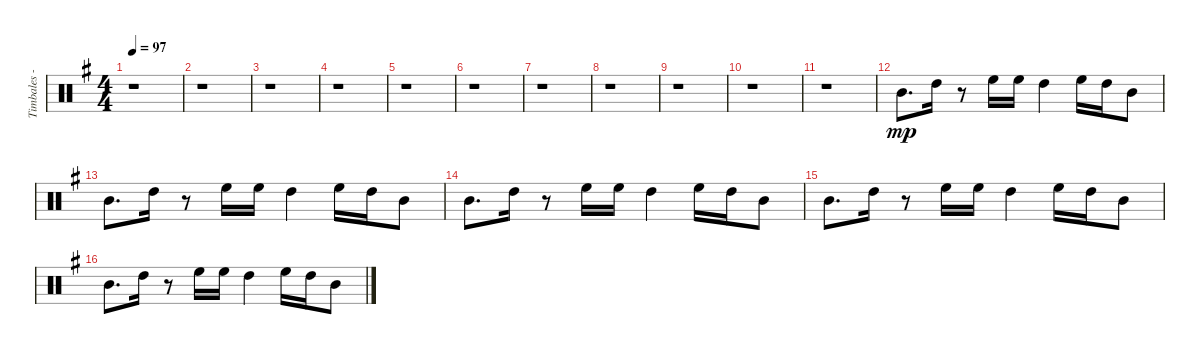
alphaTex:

\track ("Timbales - Alex Acuna" "Timbales -") {instrument percussion}
\staff {score}
\articulation defaults
\ts (4 4)
\tempo 97
\clef neutral
\ks g
r.1{dy mp} |
r.1 |
r.1 |
r.1 |
r.1 |
r.1 |
r.1 |
r.1 |
r.1 |
r.1 |
r.1 |
"Mid Tom (hit)".8{d} "High Tom (hit)".16 r.8 "High Floor Tom (hit)".16 "High Floor Tom (hit)".16 "High Tom (hit)".4 "High Floor Tom (hit)".16 "High Tom (hit)".16 "Mid Tom (hit)".8 |
"Mid Tom (hit)".8{d} "High Tom (hit)".16 r.8 "High Floor Tom (hit)".16 "High Floor Tom (hit)".16 "High Tom (hit)".4 "High Floor Tom (hit)".16 "High Tom (hit)".16 "Mid Tom (hit)".8 |
"Mid Tom (hit)".8{d} "High Tom (hit)".16 r.8 "High Floor Tom (hit)".16 "High Floor Tom (hit)".16 "High Tom (hit)".4 "High Floor Tom (hit)".16 "High Tom (hit)".16 "Mid Tom (hit)".8 |
"Mid Tom (hit)".8{d} "High Tom (hit)".16 r.8 "High Floor Tom (hit)".16 "High Floor Tom (hit)".16 "High Tom (hit)".4 "High Floor Tom (hit)".16 "High Tom (hit)".16 "Mid Tom (hit)".8 |
"Mid Tom (hit)".8{d} "High Tom (hit)".16 r.8 "High Floor Tom (hit)".16 "High Floor Tom (hit)".16 "High Tom (hit)".4 "High Floor Tom (hit)".16 "High Tom (hit)".16 "Mid Tom (hit)".8
